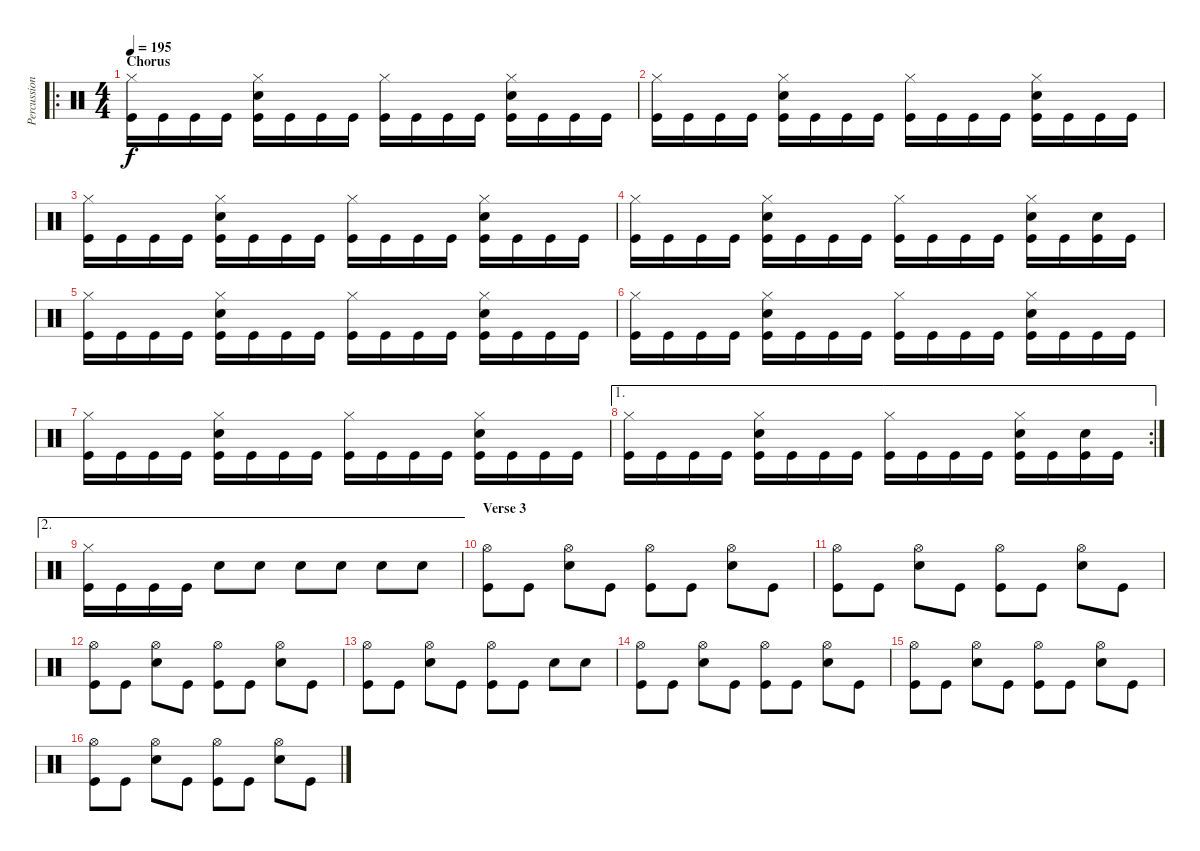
\track ("Percussion" "Percussion") {instrument percussion}
\staff {score}
\articulation defaults
\ro
\ts (4 4)
\section ("" "Chorus")
\tempo 195
\clef neutral
\ks c
("Hi-Hat (closed)" "Kick (hit)").16{dy f} "Kick (hit)".16 "Kick (hit)".16 "Kick (hit)".16 ("Hi-Hat (closed)" "Snare (hit) 2" "Kick (hit)").16 "Kick (hit)".16 "Kick (hit)".16 "Kick (hit)".16 ("Hi-Hat (closed)" "Kick (hit)").16 "Kick (hit)".16 "Kick (hit)".16 "Kick (hit)".16 ("Hi-Hat (closed)" "Snare (hit) 2" "Kick (hit)").16 "Kick (hit)".16 "Kick (hit)".16 "Kick (hit)".16 |
("Hi-Hat (closed)" "Kick (hit)").16 "Kick (hit)".16 "Kick (hit)".16 "Kick (hit)".16 ("Hi-Hat (closed)" "Snare (hit) 2" "Kick (hit)").16 "Kick (hit)".16 "Kick (hit)".16 "Kick (hit)".16 ("Hi-Hat (closed)" "Kick (hit)").16 "Kick (hit)".16 "Kick (hit)".16 "Kick (hit)".16 ("Hi-Hat (closed)" "Snare (hit) 2" "Kick (hit)").16 "Kick (hit)".16 "Kick (hit)".16 "Kick (hit)".16 |
("Hi-Hat (closed)" "Kick (hit)").16 "Kick (hit)".16 "Kick (hit)".16 "Kick (hit)".16 ("Hi-Hat (closed)" "Snare (hit) 2" "Kick (hit)").16 "Kick (hit)".16 "Kick (hit)".16 "Kick (hit)".16 ("Hi-Hat (closed)" "Kick (hit)").16 "Kick (hit)".16 "Kick (hit)".16 "Kick (hit)".16 ("Hi-Hat (closed)" "Snare (hit) 2" "Kick (hit)").16 "Kick (hit)".16 "Kick (hit)".16 "Kick (hit)".16 |
("Hi-Hat (closed)" "Kick (hit)").16 "Kick (hit)".16 "Kick (hit)".16 "Kick (hit)".16 ("Hi-Hat (closed)" "Snare (hit) 2" "Kick (hit)").16 "Kick (hit)".16 "Kick (hit)".16 "Kick (hit)".16 ("Hi-Hat (closed)" "Kick (hit)").16 "Kick (hit)".16 "Kick (hit)".16 "Kick (hit)".16 ("Hi-Hat (closed)" "Snare (hit) 2" "Kick (hit)").16 "Kick (hit)".16 ("Snare (hit) 2" "Kick (hit)").16 "Kick (hit)".16 |
("Hi-Hat (closed)" "Kick (hit)").16 "Kick (hit)".16 "Kick (hit)".16 "Kick (hit)".16 ("Hi-Hat (closed)" "Snare (hit) 2" "Kick (hit)").16 "Kick (hit)".16 "Kick (hit)".16 "Kick (hit)".16 ("Hi-Hat (closed)" "Kick (hit)").16 "Kick (hit)".16 "Kick (hit)".16 "Kick (hit)".16 ("Hi-Hat (closed)" "Snare (hit) 2" "Kick (hit)").16 "Kick (hit)".16 "Kick (hit)".16 "Kick (hit)".16 |
("Hi-Hat (closed)" "Kick (hit)").16 "Kick (hit)".16 "Kick (hit)".16 "Kick (hit)".16 ("Hi-Hat (closed)" "Snare (hit) 2" "Kick (hit)").16 "Kick (hit)".16 "Kick (hit)".16 "Kick (hit)".16 ("Hi-Hat (closed)" "Kick (hit)").16 "Kick (hit)".16 "Kick (hit)".16 "Kick (hit)".16 ("Hi-Hat (closed)" "Snare (hit) 2" "Kick (hit)").16 "Kick (hit)".16 "Kick (hit)".16 "Kick (hit)".16 |
("Hi-Hat (closed)" "Kick (hit)").16 "Kick (hit)".16 "Kick (hit)".16 "Kick (hit)".16 ("Hi-Hat (closed)" "Snare (hit) 2" "Kick (hit)").16 "Kick (hit)".16 "Kick (hit)".16 "Kick (hit)".16 ("Hi-Hat (closed)" "Kick (hit)").16 "Kick (hit)".16 "Kick (hit)".16 "Kick (hit)".16 ("Hi-Hat (closed)" "Snare (hit) 2" "Kick (hit)").16 "Kick (hit)".16 "Kick (hit)".16 "Kick (hit)".16 |
\ae 1
\rc 2
("Hi-Hat (closed)" "Kick (hit)").16 "Kick (hit)".16 "Kick (hit)".16 "Kick (hit)".16 ("Hi-Hat (closed)" "Snare (hit) 2" "Kick (hit)").16 "Kick (hit)".16 "Kick (hit)".16 "Kick (hit)".16 ("Hi-Hat (closed)" "Kick (hit)").16 "Kick (hit)".16 "Kick (hit)".16 "Kick (hit)".16 ("Hi-Hat (closed)" "Snare (hit) 2" "Kick (hit)").16 "Kick (hit)".16 ("Snare (hit) 2" "Kick (hit)").16 "Kick (hit)".16 |
\ae 2
("Hi-Hat (closed)" "Kick (hit)").16 "Kick (hit)".16 "Kick (hit)".16 "Kick (hit)".16 "Snare (hit) 2".8 "Snare (hit) 2".8 "Snare (hit) 2".8 "Snare (hit) 2".8 "Snare (hit) 2".8 "Snare (hit) 2".8 |
\section ("" "Verse 3")
("Hi-Hat (open)" "Kick (hit)").8 "Kick (hit)".8 ("Hi-Hat (open)" "Snare (hit) 2").8 "Kick (hit)".8 ("Hi-Hat (open)" "Kick (hit)").8 "Kick (hit)".8 ("Hi-Hat (open)" "Snare (hit) 2").8 "Kick (hit)".8 |
("Hi-Hat (open)" "Kick (hit)").8 "Kick (hit)".8 ("Hi-Hat (open)" "Snare (hit) 2").8 "Kick (hit)".8 ("Hi-Hat (open)" "Kick (hit)").8 "Kick (hit)".8 ("Hi-Hat (open)" "Snare (hit) 2").8 "Kick (hit)".8 |
("Hi-Hat (open)" "Kick (hit)").8 "Kick (hit)".8 ("Hi-Hat (open)" "Snare (hit) 2").8 "Kick (hit)".8 ("Hi-Hat (open)" "Kick (hit)").8 "Kick (hit)".8 ("Hi-Hat (open)" "Snare (hit) 2").8 "Kick (hit)".8 |
("Hi-Hat (open)" "Kick (hit)").8 "Kick (hit)".8 ("Hi-Hat (open)" "Snare (hit) 2").8 "Kick (hit)".8 ("Hi-Hat (open)" "Kick (hit)").8 "Kick (hit)".8 "Snare (hit) 2".8 "Snare (hit) 2".8 |
("Hi-Hat (open)" "Kick (hit)").8 "Kick (hit)".8 ("Hi-Hat (open)" "Snare (hit) 2").8 "Kick (hit)".8 ("Hi-Hat (open)" "Kick (hit)").8 "Kick (hit)".8 ("Hi-Hat (open)" "Snare (hit) 2").8 "Kick (hit)".8 |
("Hi-Hat (open)" "Kick (hit)").8 "Kick (hit)".8 ("Hi-Hat (open)" "Snare (hit) 2").8 "Kick (hit)".8 ("Hi-Hat (open)" "Kick (hit)").8 "Kick (hit)".8 ("Hi-Hat (open)" "Snare (hit) 2").8 "Kick (hit)".8 |
("Hi-Hat (open)" "Kick (hit)").8 "Kick (hit)".8 ("Hi-Hat (open)" "Snare (hit) 2").8 "Kick (hit)".8 ("Hi-Hat (open)" "Kick (hit)").8 "Kick (hit)".8 ("Hi-Hat (open)" "Snare (hit) 2").8 "Kick (hit)".8
